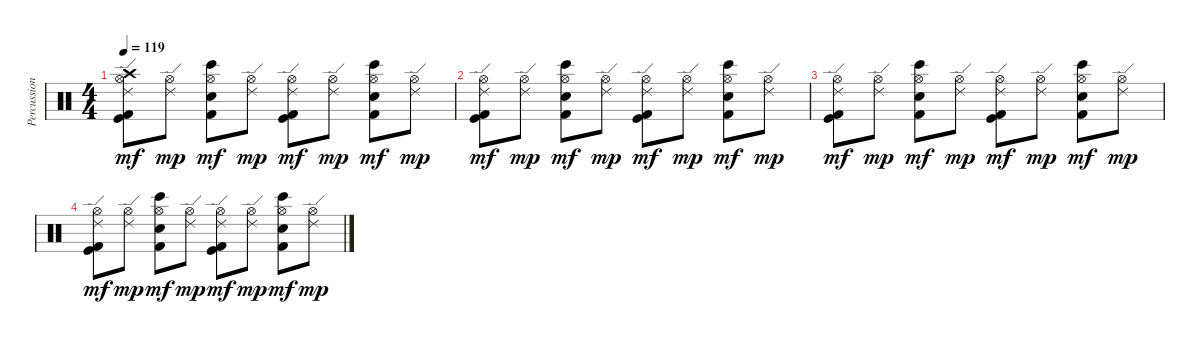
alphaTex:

\track ("Percussion" "Percussion") {instrument percussion}
\staff {score}
\articulation defaults
\ts (4 4)
\tempo 119
\clef neutral
\ks c
("Crash high (hit)" "Ride (edge) 2" "Hi-Hat (open)" "Kick (hit)" "Kick (hit) 2").8{dy mf} ("Ride (edge) 2" "Hi-Hat (open)").8{dy mp} ("Bongo High (hit)" "Hi-Hat (open)" "Hand Clap (hit)" "Kick (hit) 2").8{dy mf} ("Ride (edge) 2" "Hi-Hat (open)").8{dy mp} ("Ride (edge) 2" "Hi-Hat (open)" "Kick (hit)" "Kick (hit) 2").8{dy mf} ("Ride (edge) 2" "Hi-Hat (open)").8{dy mp} ("Bongo High (hit)" "Hi-Hat (open)" "Hand Clap (hit)" "Kick (hit) 2").8{dy mf} ("Ride (edge) 2" "Hi-Hat (open)").8{dy mp} |
("Ride (edge) 2" "Hi-Hat (open)" "Kick (hit)" "Kick (hit) 2").8{dy mf} ("Ride (edge) 2" "Hi-Hat (open)").8{dy mp} ("Bongo High (hit)" "Hi-Hat (open)" "Hand Clap (hit)" "Kick (hit) 2").8{dy mf} ("Ride (edge) 2" "Hi-Hat (open)").8{dy mp} ("Ride (edge) 2" "Hi-Hat (open)" "Kick (hit)" "Kick (hit) 2").8{dy mf} ("Ride (edge) 2" "Hi-Hat (open)").8{dy mp} ("Bongo High (hit)" "Hi-Hat (open)" "Hand Clap (hit)" "Kick (hit) 2").8{dy mf} ("Ride (edge) 2" "Hi-Hat (open)").8{dy mp} |
("Ride (edge) 2" "Hi-Hat (open)" "Kick (hit)" "Kick (hit) 2").8{dy mf} ("Ride (edge) 2" "Hi-Hat (open)").8{dy mp} ("Bongo High (hit)" "Hi-Hat (open)" "Hand Clap (hit)" "Kick (hit) 2").8{dy mf} ("Ride (edge) 2" "Hi-Hat (open)").8{dy mp} ("Ride (edge) 2" "Hi-Hat (open)" "Kick (hit)" "Kick (hit) 2").8{dy mf} ("Ride (edge) 2" "Hi-Hat (open)").8{dy mp} ("Bongo High (hit)" "Hi-Hat (open)" "Hand Clap (hit)" "Kick (hit) 2").8{dy mf} ("Ride (edge) 2" "Hi-Hat (open)").8{dy mp} |
("Ride (edge) 2" "Hi-Hat (open)" "Kick (hit)" "Kick (hit) 2").8{dy mf} ("Ride (edge) 2" "Hi-Hat (open)").8{dy mp} ("Bongo High (hit)" "Hi-Hat (open)" "Hand Clap (hit)" "Kick (hit) 2").8{dy mf} ("Ride (edge) 2" "Hi-Hat (open)").8{dy mp} ("Ride (edge) 2" "Hi-Hat (open)" "Kick (hit)" "Kick (hit) 2").8{dy mf} ("Ride (edge) 2" "Hi-Hat (open)").8{dy mp} ("Bongo High (hit)" "Hi-Hat (open)" "Hand Clap (hit)" "Kick (hit) 2").8{dy mf} ("Ride (edge) 2" "Hi-Hat (open)").8{dy mp}
